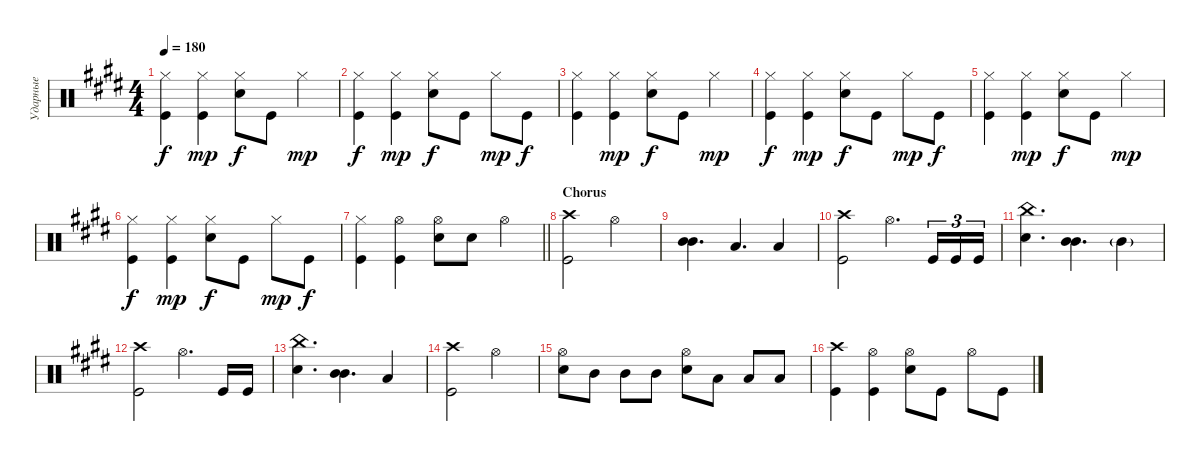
\track ("Ударные" "Ударные") {instrument percussion}
\staff {score}
\articulation defaults
\ts (4 4)
\tempo 180
\clef neutral
\ks c#minor
("Kick (hit)" "Hi-Hat (closed)").4{dy f} ("Hi-Hat (closed)" "Kick (hit)").4{dy mp} ("Hi-Hat (closed)" "Snare (hit) 2").8{dy f} "Kick (hit)".8 "Hi-Hat (closed)".4{dy mp} |
("Kick (hit)" "Hi-Hat (closed)").4{dy f} ("Hi-Hat (closed)" "Kick (hit)").4{dy mp} ("Hi-Hat (closed)" "Snare (hit) 2").8{dy f} "Kick (hit)".8 "Hi-Hat (closed)".8{dy mp} "Kick (hit)".8{dy f} |
("Kick (hit)" "Hi-Hat (closed)").4 ("Hi-Hat (closed)" "Kick (hit)").4{dy mp} ("Hi-Hat (closed)" "Snare (hit) 2").8{dy f} "Kick (hit)".8 "Hi-Hat (closed)".4{dy mp} |
("Kick (hit)" "Hi-Hat (closed)").4{dy f} ("Hi-Hat (closed)" "Kick (hit)").4{dy mp} ("Hi-Hat (closed)" "Snare (hit) 2").8{dy f} "Kick (hit)".8 "Hi-Hat (closed)".8{dy mp} "Kick (hit)".8{dy f} |
("Kick (hit)" "Hi-Hat (closed)").4 ("Hi-Hat (closed)" "Kick (hit)").4{dy mp} ("Hi-Hat (closed)" "Snare (hit) 2").8{dy f} "Kick (hit)".8 "Hi-Hat (closed)".4{dy mp} |
("Kick (hit)" "Hi-Hat (closed)").4{dy f} ("Hi-Hat (closed)" "Kick (hit)").4{dy mp} ("Hi-Hat (closed)" "Snare (hit) 2").8{dy f} "Kick (hit)".8 "Hi-Hat (closed)".8{dy mp} "Kick (hit)".8{dy f} |
\barLineRight lightlight
("Kick (hit)" "Hi-Hat (closed)").4 ("Hi-Hat (open)" "Kick (hit)").4 ("Hi-Hat (open)" "Snare (hit) 2").8 "Snare (hit) 2".8 "Hi-Hat (open)".4 |
\section ("" "Chorus")
("Kick (hit)" "Crash high (hit)").2 "Hi-Hat (open)".2 |
("Mid Tom (hit)" "Mid Tom (hit)").4{d bd 240} "Low Tom (hit)".4{d} "Low Tom (hit)".4 |
("Kick (hit)" "Crash high (hit)").2 "Hi-Hat (open)".4{d} "Kick (hit)".16{tu (3 2)} "Kick (hit)".16{tu (3 2)} "Kick (hit)".16{tu (3 2)} |
("Snare (hit) 2" "China (hit)").4{d} ("Mid Tom (hit)" "Mid Tom (hit)").4{d bd 240} "Mid Tom (hit)"{g}.4 |
("Kick (hit)" "Crash high (hit)").2 "Hi-Hat (open)".4{d} "Kick (hit)".16 "Kick (hit)".16 |
("Snare (hit) 2" "China (hit)").4{d} ("Mid Tom (hit)" "Mid Tom (hit)").4{d bd 240} "Low Tom (hit)".4 |
("Kick (hit)" "Crash high (hit)").2 "Hi-Hat (open)".2 |
("Hi-Hat (open)" "Snare (hit) 2").8 "Mid Tom (hit)".8 "Mid Tom (hit)".8 "Mid Tom (hit)".8 ("Snare (hit) 2" "Hi-Hat (open)").8 "Low Tom (hit)".8 "Low Tom (hit)".8 "Low Tom (hit)".8 |
("Kick (hit)" "Crash high (hit)").4 ("Kick (hit)" "Hi-Hat (open)").4 ("Snare (hit) 2" "Hi-Hat (open)").8 "Kick (hit)".8 "Hi-Hat (open)".8 "Kick (hit)".8
